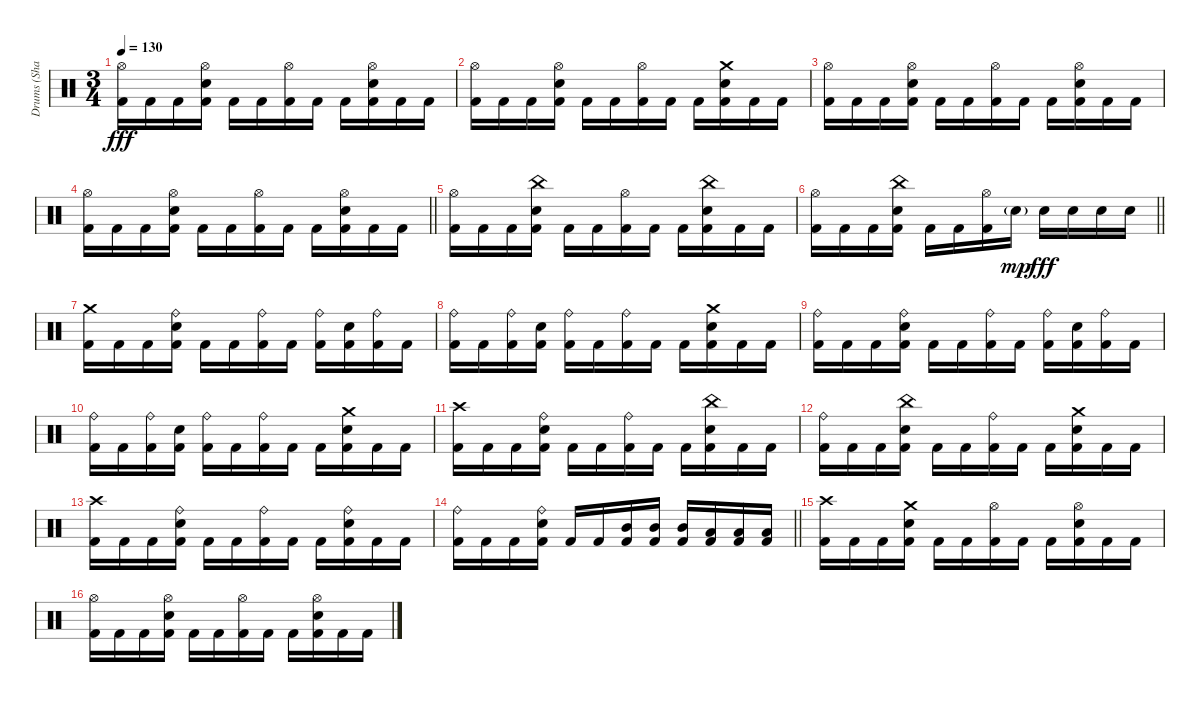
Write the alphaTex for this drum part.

\track ("Drums (Shawn)" "Drums (Sha") {instrument percussion}
\staff {score}
\articulation defaults
\ts (3 4)
\tempo 130
\clef neutral
\ks c
("Hi-Hat (open)" "Kick (hit) 2").16{dy fff} "Kick (hit) 2".16 "Kick (hit) 2".16 ("Hi-Hat (open)" "Snare (hit) 2" "Kick (hit) 2").16 "Kick (hit) 2".16 "Kick (hit) 2".16 ("Hi-Hat (open)" "Kick (hit) 2").16 "Kick (hit) 2".16 "Kick (hit) 2".16 ("Hi-Hat (open)" "Snare (hit) 2" "Kick (hit) 2").16 "Kick (hit) 2".16 "Kick (hit) 2".16 |
("Hi-Hat (open)" "Kick (hit) 2").16 "Kick (hit) 2".16 "Kick (hit) 2".16 ("Hi-Hat (open)" "Snare (hit) 2" "Kick (hit) 2").16 "Kick (hit) 2".16 "Kick (hit) 2".16 ("Hi-Hat (open)" "Kick (hit) 2").16 "Kick (hit) 2".16 "Kick (hit) 2".16 ("Crash medium (hit)" "Snare (hit) 2" "Kick (hit) 2").16 "Kick (hit) 2".16 "Kick (hit) 2".16 |
("Hi-Hat (open)" "Kick (hit) 2").16 "Kick (hit) 2".16 "Kick (hit) 2".16 ("Hi-Hat (open)" "Snare (hit) 2" "Kick (hit) 2").16 "Kick (hit) 2".16 "Kick (hit) 2".16 ("Hi-Hat (open)" "Kick (hit) 2").16 "Kick (hit) 2".16 "Kick (hit) 2".16 ("Hi-Hat (open)" "Snare (hit) 2" "Kick (hit) 2").16 "Kick (hit) 2".16 "Kick (hit) 2".16 |
\barLineRight lightlight
("Hi-Hat (open)" "Kick (hit) 2").16 "Kick (hit) 2".16 "Kick (hit) 2".16 ("Hi-Hat (open)" "Snare (hit) 2" "Kick (hit) 2").16 "Kick (hit) 2".16 "Kick (hit) 2".16 ("Hi-Hat (open)" "Kick (hit) 2").16 "Kick (hit) 2".16 "Kick (hit) 2".16 ("Hi-Hat (open)" "Snare (hit) 2" "Kick (hit) 2").16 "Kick (hit) 2".16 "Kick (hit) 2".16 |
("Hi-Hat (open)" "Kick (hit) 2").16 "Kick (hit) 2".16 "Kick (hit) 2".16 ("China (hit)" "Snare (hit) 2" "Kick (hit) 2").16 "Kick (hit) 2".16 "Kick (hit) 2".16 ("Hi-Hat (open)" "Kick (hit) 2").16 "Kick (hit) 2".16 "Kick (hit) 2".16 ("China (hit)" "Snare (hit) 2" "Kick (hit) 2").16 "Kick (hit) 2".16 "Kick (hit) 2".16 |
\barLineRight lightlight
("Hi-Hat (open)" "Kick (hit) 2").16 "Kick (hit) 2".16 "Kick (hit) 2".16 ("China (hit)" "Snare (hit) 2" "Kick (hit) 2").16 "Kick (hit) 2".16 "Kick (hit) 2".16 ("Hi-Hat (open)" "Kick (hit) 2").16 "Snare (hit) 2"{g}.16{dy mp} "Snare (hit) 2".16{dy fff} "Snare (hit) 2".16 "Snare (hit) 2".16 "Snare (hit) 2".16 |
("Crash medium (hit)" "Kick (hit) 2").16 "Kick (hit) 2".16 "Kick (hit) 2".16 ("Ride (bell)" "Snare (hit) 2" "Kick (hit) 2").16 "Kick (hit) 2".16 "Kick (hit) 2".16 ("Ride (bell)" "Kick (hit) 2").16 "Kick (hit) 2".16 ("Ride (bell)" "Kick (hit) 2").16 ("Snare (hit) 2" "Kick (hit) 2").16 ("Ride (bell)" "Kick (hit) 2").16 "Kick (hit) 2".16 |
("Ride (bell)" "Kick (hit) 2").16 "Kick (hit) 2".16 ("Ride (bell)" "Kick (hit) 2").16 ("Snare (hit) 2" "Kick (hit) 2").16 ("Ride (bell)" "Kick (hit) 2").16 "Kick (hit) 2".16 ("Ride (bell)" "Kick (hit) 2").16 "Kick (hit) 2".16 "Kick (hit) 2".16 ("Crash medium (hit)" "Snare (hit) 2" "Kick (hit) 2").16 "Kick (hit) 2".16 "Kick (hit) 2".16 |
("Ride (bell)" "Kick (hit) 2").16 "Kick (hit) 2".16 "Kick (hit) 2".16 ("Ride (bell)" "Snare (hit) 2" "Kick (hit) 2").16 "Kick (hit) 2".16 "Kick (hit) 2".16 ("Ride (bell)" "Kick (hit) 2").16 "Kick (hit) 2".16 ("Ride (bell)" "Kick (hit) 2").16 ("Snare (hit) 2" "Kick (hit) 2").16 ("Ride (bell)" "Kick (hit) 2").16 "Kick (hit) 2".16 |
("Ride (bell)" "Kick (hit) 2").16 "Kick (hit) 2".16 ("Ride (bell)" "Kick (hit) 2").16 ("Snare (hit) 2" "Kick (hit) 2").16 ("Ride (bell)" "Kick (hit) 2").16 "Kick (hit) 2".16 ("Ride (bell)" "Kick (hit) 2").16 "Kick (hit) 2".16 "Kick (hit) 2".16 ("Crash medium (hit)" "Snare (hit) 2" "Kick (hit) 2").16 "Kick (hit) 2".16 "Kick (hit) 2".16 |
("Crash high (hit)" "Kick (hit) 2").16 "Kick (hit) 2".16 "Kick (hit) 2".16 ("Ride (bell)" "Snare (hit) 2" "Kick (hit) 2").16 "Kick (hit) 2".16 "Kick (hit) 2".16 ("Ride (bell)" "Kick (hit) 2").16 "Kick (hit) 2".16 "Kick (hit) 2".16 ("China (hit)" "Snare (hit) 2" "Kick (hit) 2").16 "Kick (hit) 2".16 "Kick (hit) 2".16 |
("Ride (bell)" "Kick (hit) 2").16 "Kick (hit) 2".16 "Kick (hit) 2".16 ("China (hit)" "Snare (hit) 2" "Kick (hit) 2").16 "Kick (hit) 2".16 "Kick (hit) 2".16 ("Ride (bell)" "Kick (hit) 2").16 "Kick (hit) 2".16 "Kick (hit) 2".16 ("Crash medium (hit)" "Snare (hit) 2" "Kick (hit) 2").16 "Kick (hit) 2".16 "Kick (hit) 2".16 |
("Crash high (hit)" "Kick (hit) 2").16 "Kick (hit) 2".16 "Kick (hit) 2".16 ("Ride (bell)" "Snare (hit) 2" "Kick (hit) 2").16 "Kick (hit) 2".16 "Kick (hit) 2".16 ("Ride (bell)" "Kick (hit) 2").16 "Kick (hit) 2".16 "Kick (hit) 2".16 ("Ride (bell)" "Snare (hit) 2" "Kick (hit) 2").16 "Kick (hit) 2".16 "Kick (hit) 2".16 |
\barLineRight lightlight
("Ride (bell)" "Kick (hit) 2").16 "Kick (hit) 2".16 "Kick (hit) 2".16 ("Ride (bell)" "Snare (hit) 2" "Kick (hit) 2").16 "Kick (hit) 2".16 "Kick (hit) 2".16 ("Mid Tom (hit)" "Kick (hit) 2").16 ("Mid Tom (hit)" "Kick (hit) 2").16 ("Mid Tom (hit)" "Kick (hit) 2").16 ("Low Tom (hit)" "Kick (hit) 2").16 ("Low Tom (hit)" "Kick (hit) 2").16 ("Low Tom (hit)" "Kick (hit) 2").16 |
("Crash high (hit)" "Kick (hit) 2").16 "Kick (hit) 2".16 "Kick (hit) 2".16 ("Crash medium (hit)" "Snare (hit) 2" "Kick (hit) 2").16 "Kick (hit) 2".16 "Kick (hit) 2".16 ("Hi-Hat (open)" "Kick (hit) 2").16 "Kick (hit) 2".16 "Kick (hit) 2".16 ("Hi-Hat (open)" "Snare (hit) 2" "Kick (hit) 2").16 "Kick (hit) 2".16 "Kick (hit) 2".16 |
("Hi-Hat (open)" "Kick (hit) 2").16 "Kick (hit) 2".16 "Kick (hit) 2".16 ("Hi-Hat (open)" "Snare (hit) 2" "Kick (hit) 2").16 "Kick (hit) 2".16 "Kick (hit) 2".16 ("Hi-Hat (open)" "Kick (hit) 2").16 "Kick (hit) 2".16 "Kick (hit) 2".16 ("Hi-Hat (open)" "Snare (hit) 2" "Kick (hit) 2").16 "Kick (hit) 2".16 "Kick (hit) 2".16
